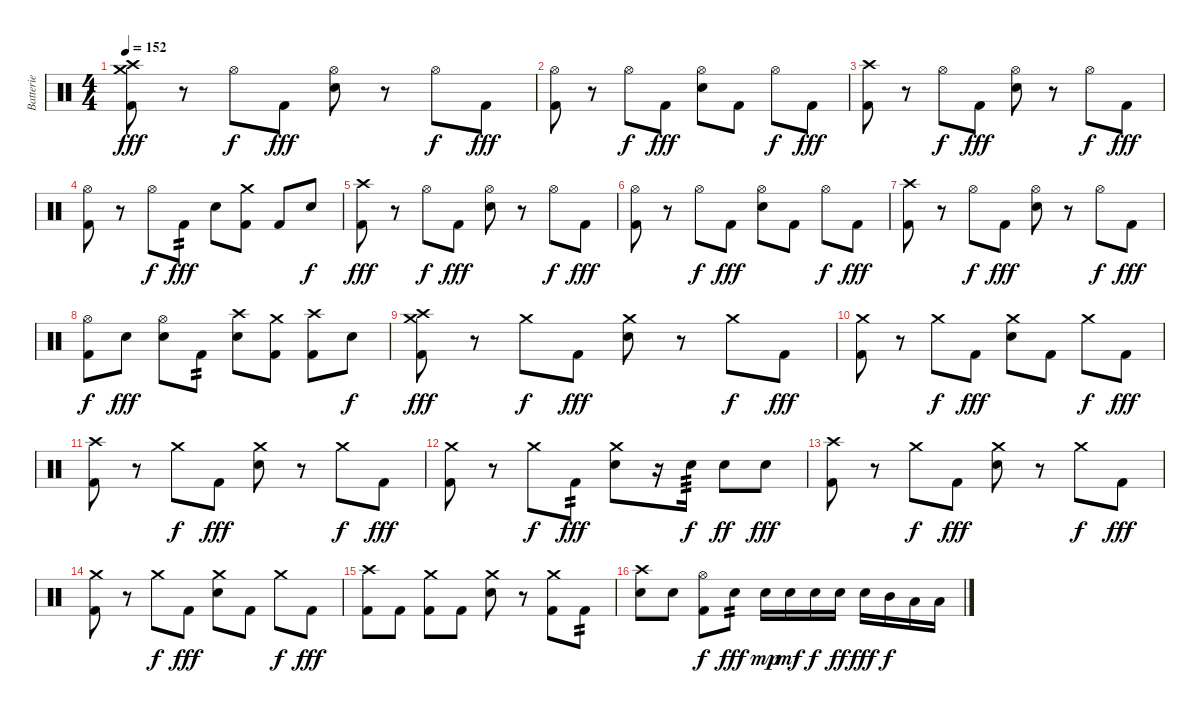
\track ("Batterie" "Batterie") {instrument percussion}
\staff {score}
\articulation defaults
\ts (4 4)
\section ("" "")
\tempo 152
\clef neutral
\ks c
("Crash high (hit)" "Crash medium (hit)" "Kick (hit) 2").8{dy fff} r.8 "Hi-Hat (open)".8{dy f} "Kick (hit) 2".8{dy fff} ("Hi-Hat (open)" "Electric Snare (hit)").8 r.8 "Hi-Hat (open)".8{dy f} "Kick (hit) 2".8{dy fff} |
("Hi-Hat (open)" "Kick (hit) 2").8 r.8 "Hi-Hat (open)".8{dy f} "Kick (hit) 2".8{dy fff} ("Hi-Hat (open)" "Electric Snare (hit)").8 "Kick (hit) 2".8 "Hi-Hat (open)".8{dy f} "Kick (hit) 2".8{dy fff} |
("Crash high (hit)" "Kick (hit) 2").8 r.8 "Hi-Hat (open)".8{dy f} "Kick (hit) 2".8{dy fff} ("Hi-Hat (open)" "Electric Snare (hit)").8 r.8 "Hi-Hat (open)".8{dy f} "Kick (hit) 2".8{dy fff} |
("Hi-Hat (open)" "Kick (hit) 2").8 r.8 "Hi-Hat (open)".8{dy f} "Kick (hit) 2".8{tp 2 dy fff} "Electric Snare (hit)".8 ("Crash medium (hit)" "Kick (hit) 2").8 "Kick (hit) 2".8 "Electric Snare (hit)".8{dy f} |
("Crash high (hit)" "Kick (hit) 2").8{dy fff} r.8 "Hi-Hat (open)".8{dy f} "Kick (hit) 2".8{dy fff} ("Hi-Hat (open)" "Electric Snare (hit)").8 r.8 "Hi-Hat (open)".8{dy f} "Kick (hit) 2".8{dy fff} |
("Hi-Hat (open)" "Kick (hit) 2").8 r.8 "Hi-Hat (open)".8{dy f} "Kick (hit) 2".8{dy fff} ("Hi-Hat (open)" "Electric Snare (hit)").8 "Kick (hit) 2".8 "Hi-Hat (open)".8{dy f} "Kick (hit) 2".8{dy fff} |
("Crash high (hit)" "Kick (hit) 2").8 r.8 "Hi-Hat (open)".8{dy f} "Kick (hit) 2".8{dy fff} ("Hi-Hat (open)" "Electric Snare (hit)").8 r.8 "Hi-Hat (open)".8{dy f} "Kick (hit) 2".8{dy fff} |
\section ("" "")
("Hi-Hat (open)" "Kick (hit) 2").8{dy f} "Electric Snare (hit)".8{dy fff} ("Hi-Hat (open)" "Electric Snare (hit)").8 "Kick (hit) 2".8{tp 2} ("Crash high (hit)" "Electric Snare (hit)").8 ("Crash medium (hit)" "Kick (hit) 2").8 ("Crash high (hit)" "Kick (hit) 2").8 "Electric Snare (hit)".8{dy f} |
("Crash high (hit)" "Crash medium (hit)" "Kick (hit) 2").8{dy fff} r.8 "Crash medium (hit)".8{dy f} "Kick (hit) 2".8{dy fff} ("Crash medium (hit)" "Electric Snare (hit)").8 r.8 "Crash medium (hit)".8{dy f} "Kick (hit) 2".8{dy fff} |
("Crash medium (hit)" "Kick (hit) 2").8 r.8 "Crash medium (hit)".8{dy f} "Kick (hit) 2".8{dy fff} ("Crash medium (hit)" "Electric Snare (hit)").8 "Kick (hit) 2".8 "Crash medium (hit)".8{dy f} "Kick (hit) 2".8{dy fff} |
("Crash high (hit)" "Kick (hit) 2").8 r.8 "Crash medium (hit)".8{dy f} "Kick (hit) 2".8{dy fff} ("Crash medium (hit)" "Electric Snare (hit)").8 r.8 "Crash medium (hit)".8{dy f} "Kick (hit) 2".8{dy fff} |
("Crash medium (hit)" "Kick (hit) 2").8 r.8 "Crash medium (hit)".8{dy f} "Kick (hit) 2".8{tp 2 dy fff} ("Crash medium (hit)" "Electric Snare (hit)").8 r.16 "Electric Snare (hit)".16{tp 3 dy f} "Electric Snare (hit)".8{dy ff} "Electric Snare (hit)".8{dy fff} |
("Crash high (hit)" "Kick (hit) 2").8 r.8 "Crash medium (hit)".8{dy f} "Kick (hit) 2".8{dy fff} ("Crash medium (hit)" "Electric Snare (hit)").8 r.8 "Crash medium (hit)".8{dy f} "Kick (hit) 2".8{dy fff} |
("Crash medium (hit)" "Kick (hit) 2").8 r.8 "Crash medium (hit)".8{dy f} "Kick (hit) 2".8{dy fff} ("Crash medium (hit)" "Electric Snare (hit)").8 "Kick (hit) 2".8 "Crash medium (hit)".8{dy f} "Kick (hit) 2".8{dy fff} |
("Crash high (hit)" "Kick (hit) 2").8 "Kick (hit) 2".8 ("Crash medium (hit)" "Kick (hit) 2").8 "Kick (hit) 2".8 ("Crash medium (hit)" "Electric Snare (hit)").8 r.8 ("Crash medium (hit)" "Kick (hit) 2").8 "Kick (hit) 2".8{tp 2} |
("Crash high (hit)" "Electric Snare (hit)").8 "Electric Snare (hit)".8 ("Hi-Hat (open)" "Kick (hit) 2").8{dy f} "Electric Snare (hit)".8{tp 2 dy fff} "Electric Snare (hit)".16{dy mp} "Electric Snare (hit)".16{dy mf} "Electric Snare (hit)".16{dy f} "Electric Snare (hit)".16{dy ff} "Electric Snare (hit)".16{dy fff} "Mid Tom (hit)".16{dy f} "Low Tom (hit)".16 "Low Floor Tom (hit)".16
